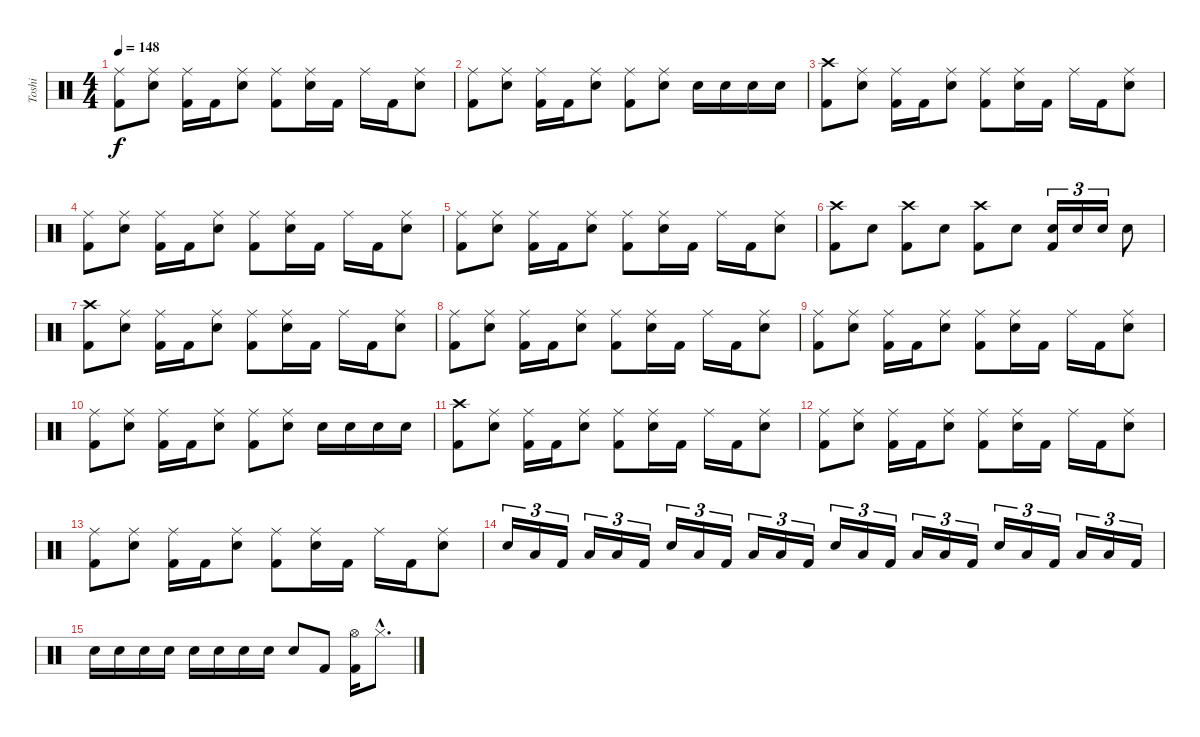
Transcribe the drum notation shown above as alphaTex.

\track ("Toshi" "Toshi") {instrument percussion}
\staff {score}
\articulation defaults
\ts (4 4)
\tempo 148
\clef neutral
\ks c
("Ride (middle)" "Kick (hit) 2").8{dy f} ("Ride (middle)" "Snare (hit) 2").8 ("Ride (middle)" "Kick (hit) 2").16 "Kick (hit) 2".16 ("Ride (middle)" "Snare (hit) 2").8 ("Ride (middle)" "Kick (hit) 2").8 ("Ride (middle)" "Snare (hit) 2").16 "Kick (hit) 2".16 "Ride (middle)".16 "Kick (hit) 2".16 ("Ride (middle)" "Snare (hit) 2").8 |
("Ride (middle)" "Kick (hit) 2").8 ("Ride (middle)" "Snare (hit) 2").8 ("Ride (middle)" "Kick (hit) 2").16 "Kick (hit) 2".16 ("Ride (middle)" "Snare (hit) 2").8 ("Ride (middle)" "Kick (hit) 2").8 ("Ride (middle)" "Snare (hit) 2").8 "Snare (hit) 2".16 "Snare (hit) 2".16 "Snare (hit) 2".16 "Snare (hit) 2".16 |
("Crash high (hit)" "Kick (hit) 2").8 ("Ride (middle)" "Snare (hit) 2").8 ("Ride (middle)" "Kick (hit) 2").16 "Kick (hit) 2".16 ("Ride (middle)" "Snare (hit) 2").8 ("Ride (middle)" "Kick (hit) 2").8 ("Ride (middle)" "Snare (hit) 2").16 "Kick (hit) 2".16 "Ride (middle)".16 "Kick (hit) 2".16 ("Ride (middle)" "Snare (hit) 2").8 |
("Ride (middle)" "Kick (hit) 2").8 ("Ride (middle)" "Snare (hit) 2").8 ("Ride (middle)" "Kick (hit) 2").16 "Kick (hit) 2".16 ("Ride (middle)" "Snare (hit) 2").8 ("Ride (middle)" "Kick (hit) 2").8 ("Ride (middle)" "Snare (hit) 2").16 "Kick (hit) 2".16 "Ride (middle)".16 "Kick (hit) 2".16 ("Ride (middle)" "Snare (hit) 2").8 |
("Ride (middle)" "Kick (hit) 2").8 ("Ride (middle)" "Snare (hit) 2").8 ("Ride (middle)" "Kick (hit) 2").16 "Kick (hit) 2".16 ("Ride (middle)" "Snare (hit) 2").8 ("Ride (middle)" "Kick (hit) 2").8 ("Ride (middle)" "Snare (hit) 2").16 "Kick (hit) 2".16 "Ride (middle)".16 "Kick (hit) 2".16 ("Ride (middle)" "Snare (hit) 2").8 |
("Crash high (hit)" "Kick (hit) 2").8 "Snare (hit) 2".8 ("Crash high (hit)" "Kick (hit) 2").8 "Snare (hit) 2".8 ("Crash high (hit)" "Kick (hit) 2").8 "Snare (hit) 2".8 ("Snare (hit) 2" "Kick (hit) 2").16{tu (3 2)} "Snare (hit) 2".16{tu (3 2)} "Snare (hit) 2".16{tu (3 2)} "Snare (hit) 2".8 |
("Crash high (hit)" "Kick (hit) 2").8 ("Ride (middle)" "Snare (hit) 2").8 ("Ride (middle)" "Kick (hit) 2").16 "Kick (hit) 2".16 ("Ride (middle)" "Snare (hit) 2").8 ("Ride (middle)" "Kick (hit) 2").8 ("Ride (middle)" "Snare (hit) 2").16 "Kick (hit) 2".16 "Ride (middle)".16 "Kick (hit) 2".16 ("Ride (middle)" "Snare (hit) 2").8 |
("Ride (middle)" "Kick (hit) 2").8 ("Ride (middle)" "Snare (hit) 2").8 ("Ride (middle)" "Kick (hit) 2").16 "Kick (hit) 2".16 ("Ride (middle)" "Snare (hit) 2").8 ("Ride (middle)" "Kick (hit) 2").8 ("Ride (middle)" "Snare (hit) 2").16 "Kick (hit) 2".16 "Ride (middle)".16 "Kick (hit) 2".16 ("Ride (middle)" "Snare (hit) 2").8 |
("Ride (middle)" "Kick (hit) 2").8 ("Ride (middle)" "Snare (hit) 2").8 ("Ride (middle)" "Kick (hit) 2").16 "Kick (hit) 2".16 ("Ride (middle)" "Snare (hit) 2").8 ("Ride (middle)" "Kick (hit) 2").8 ("Ride (middle)" "Snare (hit) 2").16 "Kick (hit) 2".16 "Ride (middle)".16 "Kick (hit) 2".16 ("Ride (middle)" "Snare (hit) 2").8 |
("Ride (middle)" "Kick (hit) 2").8 ("Ride (middle)" "Snare (hit) 2").8 ("Ride (middle)" "Kick (hit) 2").16 "Kick (hit) 2".16 ("Ride (middle)" "Snare (hit) 2").8 ("Ride (middle)" "Kick (hit) 2").8 ("Ride (middle)" "Snare (hit) 2").8 "Snare (hit) 2".16 "Snare (hit) 2".16 "Snare (hit) 2".16 "Snare (hit) 2".16 |
("Crash high (hit)" "Kick (hit) 2").8 ("Ride (middle)" "Snare (hit) 2").8 ("Ride (middle)" "Kick (hit) 2").16 "Kick (hit) 2".16 ("Ride (middle)" "Snare (hit) 2").8 ("Ride (middle)" "Kick (hit) 2").8 ("Ride (middle)" "Snare (hit) 2").16 "Kick (hit) 2".16 "Ride (middle)".16 "Kick (hit) 2".16 ("Ride (middle)" "Snare (hit) 2").8 |
("Ride (middle)" "Kick (hit) 2").8 ("Ride (middle)" "Snare (hit) 2").8 ("Ride (middle)" "Kick (hit) 2").16 "Kick (hit) 2".16 ("Ride (middle)" "Snare (hit) 2").8 ("Ride (middle)" "Kick (hit) 2").8 ("Ride (middle)" "Snare (hit) 2").16 "Kick (hit) 2".16 "Ride (middle)".16 "Kick (hit) 2".16 ("Ride (middle)" "Snare (hit) 2").8 |
("Ride (middle)" "Kick (hit) 2").8 ("Ride (middle)" "Snare (hit) 2").8 ("Ride (middle)" "Kick (hit) 2").16 "Kick (hit) 2".16 ("Ride (middle)" "Snare (hit) 2").8 ("Ride (middle)" "Kick (hit) 2").8 ("Ride (middle)" "Snare (hit) 2").16 "Kick (hit) 2".16 "Ride (middle)".16 "Kick (hit) 2".16 ("Ride (middle)" "Snare (hit) 2").8 |
"Snare (hit) 2".16{tu (3 2)} "Low Floor Tom (hit)".16{tu (3 2)} "Kick (hit) 2".16{tu (3 2)} "Low Tom (hit)".16{tu (3 2)} "Low Floor Tom (hit)".16{tu (3 2)} "Kick (hit) 2".16{tu (3 2)} "Snare (hit) 2".16{tu (3 2)} "Low Floor Tom (hit)".16{tu (3 2)} "Kick (hit) 2".16{tu (3 2)} "Low Tom (hit)".16{tu (3 2)} "Low Floor Tom (hit)".16{tu (3 2)} "Kick (hit) 2".16{tu (3 2)} "Snare (hit) 2".16{tu (3 2)} "Low Floor Tom (hit)".16{tu (3 2)} "Kick (hit) 2".16{tu (3 2)} "Low Tom (hit)".16{tu (3 2)} "Low Floor Tom (hit)".16{tu (3 2)} "Kick (hit) 2".16{tu (3 2)} "Snare (hit) 2".16{tu (3 2)} "Low Floor Tom (hit)".16{tu (3 2)} "Kick (hit) 2".16{tu (3 2)} "Low Tom (hit)".16{tu (3 2)} "Low Floor Tom (hit)".16{tu (3 2)} "Kick (hit) 2".16{tu (3 2)} |
"Snare (hit) 2".16 "Snare (hit) 2".16 "Snare (hit) 2".16 "Snare (hit) 2".16 "Snare (hit) 2".16 "Snare (hit) 2".16 "Snare (hit) 2".16 "Snare (hit) 2".16 "Snare (hit) 2".8 "Kick (hit) 2".8 ("Hi-Hat (open)" "Kick (hit) 2").16 "Hi-Hat (closed)"{hac}.8{d}
